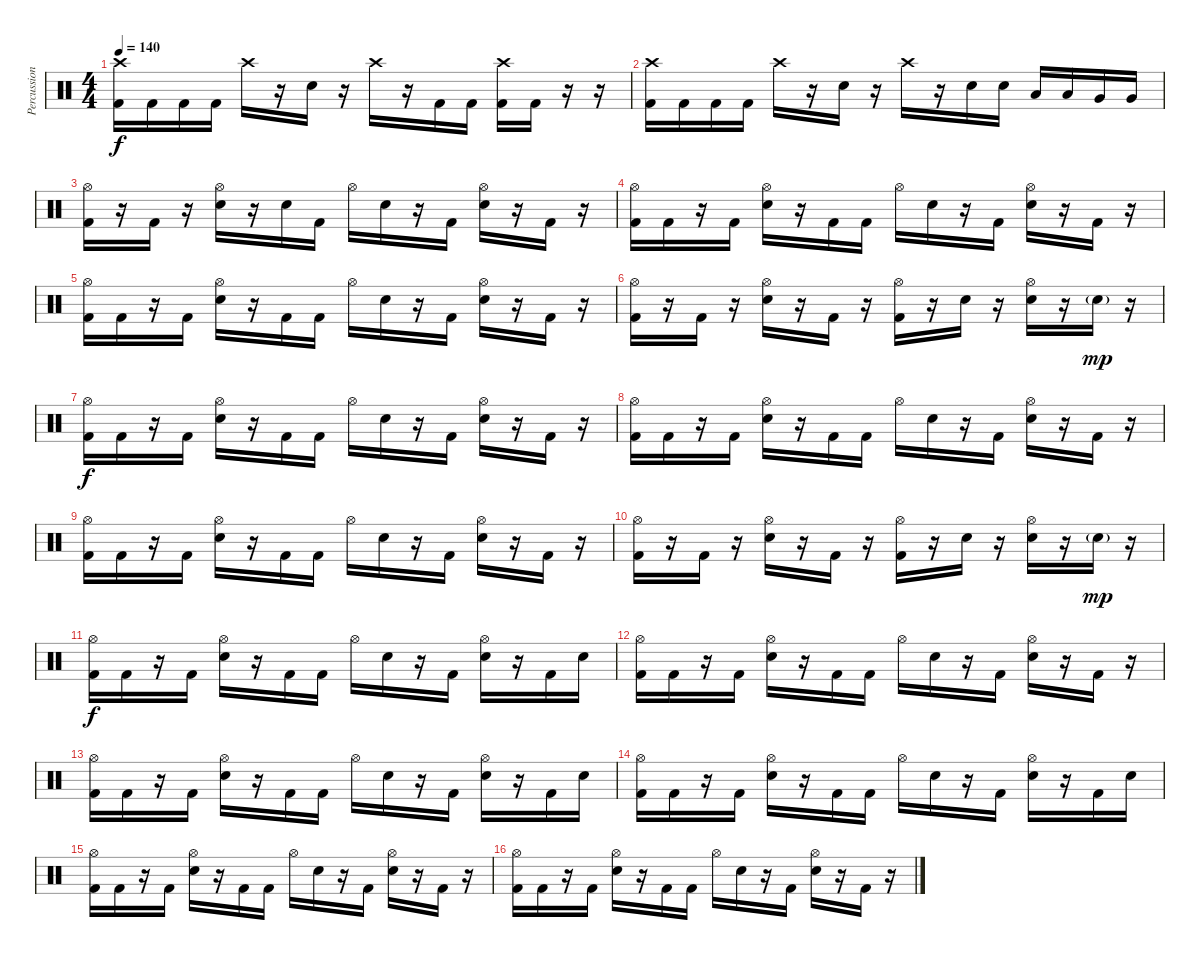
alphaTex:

\track ("Percussion" "Percussion") {instrument percussion}
\staff {score}
\articulation defaults
\ts (4 4)
\tempo 140
\clef neutral
\ks c
("Crash high (hit)" "Kick (hit) 2").16{dy f} "Kick (hit) 2".16 "Kick (hit) 2".16 "Kick (hit) 2".16 "Crash high (hit)".16 r.16 "Electric Snare (hit)".16 r.16 "Crash high (hit)".16 r.16 "Kick (hit) 2".16 "Kick (hit) 2".16 ("Crash high (hit)" "Kick (hit) 2").16 "Kick (hit) 2".16 r.16 r.16 |
("Crash high (hit)" "Kick (hit) 2").16 "Kick (hit) 2".16 "Kick (hit) 2".16 "Kick (hit) 2".16 "Crash high (hit)".16 r.16 "Electric Snare (hit)".16 r.16 "Crash high (hit)".16 r.16 "Electric Snare (hit)".16 "Electric Snare (hit)".16 "Low Tom (hit)".16 "Low Tom (hit)".16 "Very Low Tom (hit)".16 "Very Low Tom (hit)".16 |
("Hi-Hat (open)" "Kick (hit) 2").16 r.16 "Kick (hit) 2".16 r.16 ("Hi-Hat (open)" "Electric Snare (hit)").16 r.16 "Electric Snare (hit)".16 "Kick (hit) 2".16 "Hi-Hat (open)".16 "Electric Snare (hit)".16 r.16 "Kick (hit) 2".16 ("Hi-Hat (open)" "Electric Snare (hit)").16 r.16 "Kick (hit) 2".16 r.16 |
("Hi-Hat (open)" "Kick (hit) 2").16 "Kick (hit) 2".16 r.16 "Kick (hit) 2".16 ("Hi-Hat (open)" "Electric Snare (hit)").16 r.16 "Kick (hit) 2".16 "Kick (hit) 2".16 "Hi-Hat (open)".16 "Electric Snare (hit)".16 r.16 "Kick (hit) 2".16 ("Hi-Hat (open)" "Electric Snare (hit)").16 r.16 "Kick (hit) 2".16 r.16 |
("Hi-Hat (open)" "Kick (hit) 2").16 "Kick (hit) 2".16 r.16 "Kick (hit) 2".16 ("Hi-Hat (open)" "Electric Snare (hit)").16 r.16 "Kick (hit) 2".16 "Kick (hit) 2".16 "Hi-Hat (open)".16 "Electric Snare (hit)".16 r.16 "Kick (hit) 2".16 ("Hi-Hat (open)" "Electric Snare (hit)").16 r.16 "Kick (hit) 2".16 r.16 |
("Hi-Hat (open)" "Kick (hit) 2").16 r.16 "Kick (hit) 2".16 r.16 ("Hi-Hat (open)" "Electric Snare (hit)").16 r.16 "Kick (hit) 2".16 r.16 ("Hi-Hat (open)" "Kick (hit) 2").16 r.16 "Electric Snare (hit)".16 r.16 ("Hi-Hat (open)" "Electric Snare (hit)").16 r.16 "Electric Snare (hit)"{g}.16{dy mp} r.16 |
("Hi-Hat (open)" "Kick (hit) 2").16{dy f} "Kick (hit) 2".16 r.16 "Kick (hit) 2".16 ("Hi-Hat (open)" "Electric Snare (hit)").16 r.16 "Kick (hit) 2".16 "Kick (hit) 2".16 "Hi-Hat (open)".16 "Electric Snare (hit)".16 r.16 "Kick (hit) 2".16 ("Hi-Hat (open)" "Electric Snare (hit)").16 r.16 "Kick (hit) 2".16 r.16 |
("Hi-Hat (open)" "Kick (hit) 2").16 "Kick (hit) 2".16 r.16 "Kick (hit) 2".16 ("Hi-Hat (open)" "Electric Snare (hit)").16 r.16 "Kick (hit) 2".16 "Kick (hit) 2".16 "Hi-Hat (open)".16 "Electric Snare (hit)".16 r.16 "Kick (hit) 2".16 ("Hi-Hat (open)" "Electric Snare (hit)").16 r.16 "Kick (hit) 2".16 r.16 |
("Hi-Hat (open)" "Kick (hit) 2").16 "Kick (hit) 2".16 r.16 "Kick (hit) 2".16 ("Hi-Hat (open)" "Electric Snare (hit)").16 r.16 "Kick (hit) 2".16 "Kick (hit) 2".16 "Hi-Hat (open)".16 "Electric Snare (hit)".16 r.16 "Kick (hit) 2".16 ("Hi-Hat (open)" "Electric Snare (hit)").16 r.16 "Kick (hit) 2".16 r.16 |
("Hi-Hat (open)" "Kick (hit) 2").16 r.16 "Kick (hit) 2".16 r.16 ("Hi-Hat (open)" "Electric Snare (hit)").16 r.16 "Kick (hit) 2".16 r.16 ("Hi-Hat (open)" "Kick (hit) 2").16 r.16 "Electric Snare (hit)".16 r.16 ("Hi-Hat (open)" "Electric Snare (hit)").16 r.16 "Electric Snare (hit)"{g}.16{dy mp} r.16 |
("Hi-Hat (open)" "Kick (hit) 2").16{dy f} "Kick (hit) 2".16 r.16 "Kick (hit) 2".16 ("Hi-Hat (open)" "Electric Snare (hit)").16 r.16 "Kick (hit) 2".16 "Kick (hit) 2".16 "Hi-Hat (open)".16 "Electric Snare (hit)".16 r.16 "Kick (hit) 2".16 ("Hi-Hat (open)" "Electric Snare (hit)").16 r.16 "Kick (hit) 2".16 "Electric Snare (hit)".16 |
("Hi-Hat (open)" "Kick (hit) 2").16 "Kick (hit) 2".16 r.16 "Kick (hit) 2".16 ("Hi-Hat (open)" "Electric Snare (hit)").16 r.16 "Kick (hit) 2".16 "Kick (hit) 2".16 "Hi-Hat (open)".16 "Electric Snare (hit)".16 r.16 "Kick (hit) 2".16 ("Hi-Hat (open)" "Electric Snare (hit)").16 r.16 "Kick (hit) 2".16 r.16 |
("Hi-Hat (open)" "Kick (hit) 2").16 "Kick (hit) 2".16 r.16 "Kick (hit) 2".16 ("Hi-Hat (open)" "Electric Snare (hit)").16 r.16 "Kick (hit) 2".16 "Kick (hit) 2".16 "Hi-Hat (open)".16 "Electric Snare (hit)".16 r.16 "Kick (hit) 2".16 ("Hi-Hat (open)" "Electric Snare (hit)").16 r.16 "Kick (hit) 2".16 "Electric Snare (hit)".16 |
("Hi-Hat (open)" "Kick (hit) 2").16 "Kick (hit) 2".16 r.16 "Kick (hit) 2".16 ("Hi-Hat (open)" "Electric Snare (hit)").16 r.16 "Kick (hit) 2".16 "Kick (hit) 2".16 "Hi-Hat (open)".16 "Electric Snare (hit)".16 r.16 "Kick (hit) 2".16 ("Hi-Hat (open)" "Electric Snare (hit)").16 r.16 "Kick (hit) 2".16 "Electric Snare (hit)".16 |
("Hi-Hat (open)" "Kick (hit) 2").16 "Kick (hit) 2".16 r.16 "Kick (hit) 2".16 ("Hi-Hat (open)" "Electric Snare (hit)").16 r.16 "Kick (hit) 2".16 "Kick (hit) 2".16 "Hi-Hat (open)".16 "Electric Snare (hit)".16 r.16 "Kick (hit) 2".16 ("Hi-Hat (open)" "Electric Snare (hit)").16 r.16 "Kick (hit) 2".16 r.16 |
("Hi-Hat (open)" "Kick (hit) 2").16 "Kick (hit) 2".16 r.16 "Kick (hit) 2".16 ("Hi-Hat (open)" "Electric Snare (hit)").16 r.16 "Kick (hit) 2".16 "Kick (hit) 2".16 "Hi-Hat (open)".16 "Electric Snare (hit)".16 r.16 "Kick (hit) 2".16 ("Hi-Hat (open)" "Electric Snare (hit)").16 r.16 "Kick (hit) 2".16 r.16
